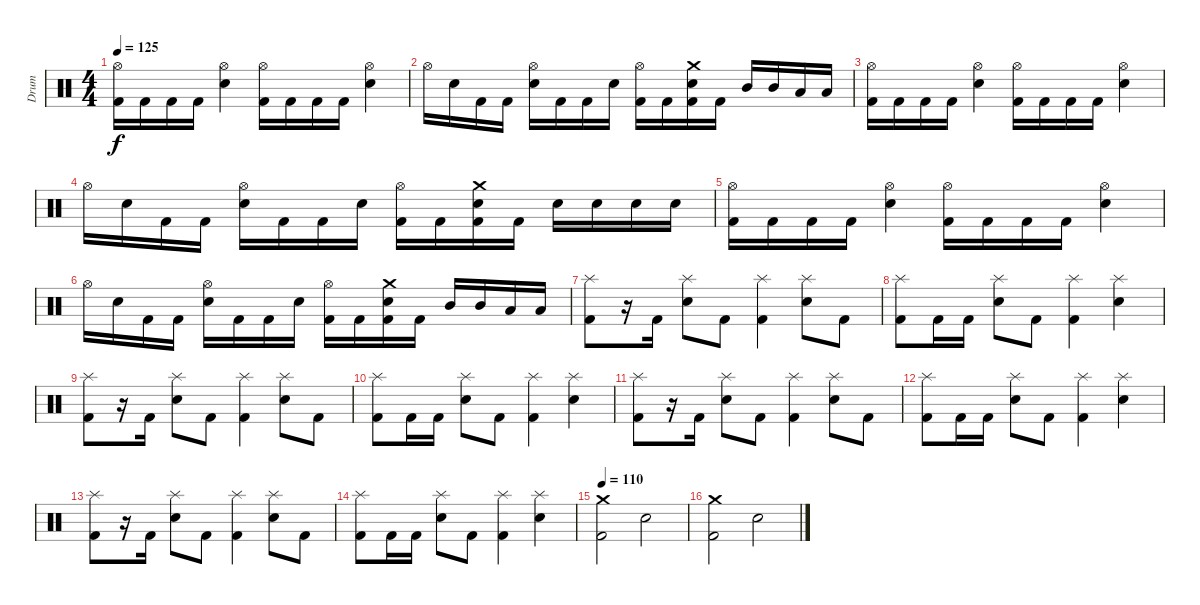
\track ("Drum" "Drum") {instrument percussion}
\staff {score}
\articulation defaults
\ts (4 4)
\tempo 125
\clef neutral
\ks c
("Kick (hit) 2" "Hi-Hat (open)").16{dy f} "Kick (hit) 2".16 "Kick (hit) 2".16 "Kick (hit) 2".16 ("Snare (hit) 2" "Hi-Hat (open)").4 ("Kick (hit) 2" "Hi-Hat (open)").16 "Kick (hit) 2".16 "Kick (hit) 2".16 "Kick (hit) 2".16 ("Snare (hit) 2" "Hi-Hat (open)").4 |
"Hi-Hat (open)".16 "Snare (hit) 2".16 "Kick (hit) 2".16 "Kick (hit) 2".16 ("Snare (hit) 2" "Hi-Hat (open)").16 "Kick (hit) 2".16 "Kick (hit) 2".16 "Snare (hit) 2".16 ("Kick (hit) 2" "Hi-Hat (open)").16 "Kick (hit) 2".16 ("Kick (hit) 2" "Snare (hit) 2" "Crash medium (hit)").16 "Kick (hit) 2".16 "Mid Tom (hit)".16 "Mid Tom (hit)".16 "Low Tom (hit)".16 "Low Tom (hit)".16 |
("Kick (hit) 2" "Hi-Hat (open)").16 "Kick (hit) 2".16 "Kick (hit) 2".16 "Kick (hit) 2".16 ("Snare (hit) 2" "Hi-Hat (open)").4 ("Kick (hit) 2" "Hi-Hat (open)").16 "Kick (hit) 2".16 "Kick (hit) 2".16 "Kick (hit) 2".16 ("Snare (hit) 2" "Hi-Hat (open)").4 |
"Hi-Hat (open)".16 "Snare (hit) 2".16 "Kick (hit) 2".16 "Kick (hit) 2".16 ("Snare (hit) 2" "Hi-Hat (open)").16 "Kick (hit) 2".16 "Kick (hit) 2".16 "Snare (hit) 2".16 ("Kick (hit) 2" "Hi-Hat (open)").16 "Kick (hit) 2".16 ("Kick (hit) 2" "Snare (hit) 2" "Crash medium (hit)").16 "Kick (hit) 2".16 "Snare (hit) 2".16 "Snare (hit) 2".16 "Snare (hit) 2".16 "Snare (hit) 2".16 |
("Kick (hit) 2" "Hi-Hat (open)").16 "Kick (hit) 2".16 "Kick (hit) 2".16 "Kick (hit) 2".16 ("Snare (hit) 2" "Hi-Hat (open)").4 ("Kick (hit) 2" "Hi-Hat (open)").16 "Kick (hit) 2".16 "Kick (hit) 2".16 "Kick (hit) 2".16 ("Snare (hit) 2" "Hi-Hat (open)").4 |
"Hi-Hat (open)".16 "Snare (hit) 2".16 "Kick (hit) 2".16 "Kick (hit) 2".16 ("Snare (hit) 2" "Hi-Hat (open)").16 "Kick (hit) 2".16 "Kick (hit) 2".16 "Snare (hit) 2".16 ("Kick (hit) 2" "Hi-Hat (open)").16 "Kick (hit) 2".16 ("Kick (hit) 2" "Snare (hit) 2" "Crash medium (hit)").16 "Kick (hit) 2".16 "Mid Tom (hit)".16 "Mid Tom (hit)".16 "Low Tom (hit)".16 "Low Tom (hit)".16 |
("Kick (hit) 2" "Splash (hit)").8 r.16 "Kick (hit) 2".16 ("Snare (hit) 2" "Splash (hit)").8 "Kick (hit) 2".8 ("Kick (hit) 2" "Splash (hit)").4 ("Snare (hit) 2" "Splash (hit)").8 "Kick (hit) 2".8 |
("Kick (hit) 2" "Splash (hit)").8 "Kick (hit) 2".16 "Kick (hit) 2".16 ("Snare (hit) 2" "Splash (hit)").8 "Kick (hit) 2".8 ("Kick (hit) 2" "Splash (hit)").4 ("Snare (hit) 2" "Splash (hit)").4 |
("Kick (hit) 2" "Splash (hit)").8 r.16 "Kick (hit) 2".16 ("Snare (hit) 2" "Splash (hit)").8 "Kick (hit) 2".8 ("Kick (hit) 2" "Splash (hit)").4 ("Snare (hit) 2" "Splash (hit)").8 "Kick (hit) 2".8 |
("Kick (hit) 2" "Splash (hit)").8 "Kick (hit) 2".16 "Kick (hit) 2".16 ("Snare (hit) 2" "Splash (hit)").8 "Kick (hit) 2".8 ("Kick (hit) 2" "Splash (hit)").4 ("Snare (hit) 2" "Splash (hit)").4 |
("Kick (hit) 2" "Splash (hit)").8 r.16 "Kick (hit) 2".16 ("Snare (hit) 2" "Splash (hit)").8 "Kick (hit) 2".8 ("Kick (hit) 2" "Splash (hit)").4 ("Snare (hit) 2" "Splash (hit)").8 "Kick (hit) 2".8 |
("Kick (hit) 2" "Splash (hit)").8 "Kick (hit) 2".16 "Kick (hit) 2".16 ("Snare (hit) 2" "Splash (hit)").8 "Kick (hit) 2".8 ("Kick (hit) 2" "Splash (hit)").4 ("Snare (hit) 2" "Splash (hit)").4 |
("Kick (hit) 2" "Splash (hit)").8 r.16 "Kick (hit) 2".16 ("Snare (hit) 2" "Splash (hit)").8 "Kick (hit) 2".8 ("Kick (hit) 2" "Splash (hit)").4 ("Snare (hit) 2" "Splash (hit)").8 "Kick (hit) 2".8 |
("Kick (hit) 2" "Splash (hit)").8 "Kick (hit) 2".16 "Kick (hit) 2".16 ("Snare (hit) 2" "Splash (hit)").8 "Kick (hit) 2".8 ("Kick (hit) 2" "Splash (hit)").4 ("Snare (hit) 2" "Splash (hit)").4 |
\tempo 110
("Kick (hit) 2" "Crash medium (hit)").2 "Snare (hit) 2".2 |
("Kick (hit) 2" "Crash medium (hit)").2 "Snare (hit) 2".2
